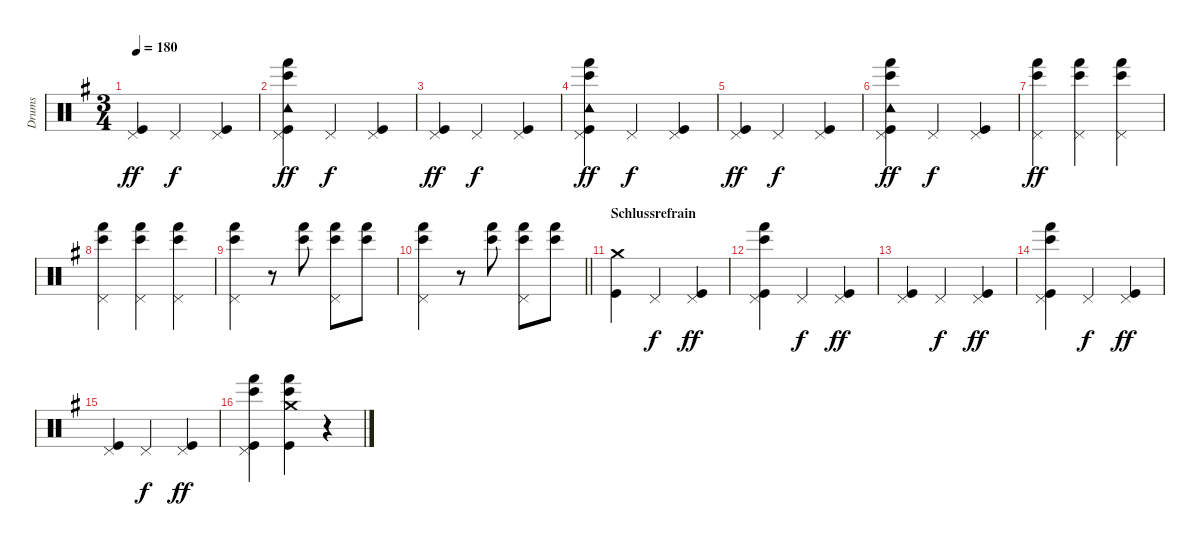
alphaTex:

\track ("Drums" "Drums") {instrument percussion bank 24}
\staff {score}
\articulation defaults
\ts (3 4)
\tempo 180
\clef neutral
\ks eminor
("Pedal Hi-Hat (hit)" "Kick (hit)").4{dy ff} "Pedal Hi-Hat (hit)".4{dy f} ("Pedal Hi-Hat (hit)" "Kick (hit)").4 |
("Pedal Hi-Hat (hit)" "Tambourine (hit)" "Bongo High (hit)" "Hand (hit)" "Kick (hit)").4{dy ff} "Pedal Hi-Hat (hit)".4{dy f} ("Pedal Hi-Hat (hit)" "Kick (hit)").4 |
("Pedal Hi-Hat (hit)" "Kick (hit)").4{dy ff} "Pedal Hi-Hat (hit)".4{dy f} ("Pedal Hi-Hat (hit)" "Kick (hit)").4 |
("Pedal Hi-Hat (hit)" "Tambourine (hit)" "Bongo High (hit)" "Hand (hit)" "Kick (hit)").4{dy ff} "Pedal Hi-Hat (hit)".4{dy f} ("Pedal Hi-Hat (hit)" "Kick (hit)").4 |
("Pedal Hi-Hat (hit)" "Kick (hit)").4{dy ff} "Pedal Hi-Hat (hit)".4{dy f} ("Pedal Hi-Hat (hit)" "Kick (hit)").4 |
("Pedal Hi-Hat (hit)" "Tambourine (hit)" "Bongo High (hit)" "Hand (hit)" "Kick (hit)").4{dy ff} "Pedal Hi-Hat (hit)".4{dy f} ("Pedal Hi-Hat (hit)" "Kick (hit)").4 |
("Pedal Hi-Hat (hit)" "Bongo High (hit)" "Hand (hit)").4{dy ff} ("Pedal Hi-Hat (hit)" "Bongo High (hit)" "Hand (hit)").4 ("Pedal Hi-Hat (hit)" "Bongo High (hit)" "Hand (hit)").4 |
("Pedal Hi-Hat (hit)" "Bongo High (hit)" "Hand (hit)").4 ("Pedal Hi-Hat (hit)" "Bongo High (hit)" "Hand (hit)").4 ("Pedal Hi-Hat (hit)" "Bongo High (hit)" "Hand (hit)").4 |
("Pedal Hi-Hat (hit)" "Bongo High (hit)" "Hand (hit)").4 r.8 ("Bongo High (hit)" "Hand (hit)").8 ("Pedal Hi-Hat (hit)" "Bongo High (hit)" "Hand (hit)").8 ("Bongo High (hit)" "Hand (hit)").8 |
\barLineRight lightlight
("Pedal Hi-Hat (hit)" "Bongo High (hit)" "Hand (hit)").4 r.8 ("Bongo High (hit)" "Hand (hit)").8 ("Pedal Hi-Hat (hit)" "Bongo High (hit)" "Hand (hit)").8 ("Bongo High (hit)" "Hand (hit)").8 |
\section ("" "Schlussrefrain")
("Crash medium (hit)" "Kick (hit)").4 "Pedal Hi-Hat (hit)".4{dy f} ("Pedal Hi-Hat (hit)" "Kick (hit)").4{dy ff} |
("Pedal Hi-Hat (hit)" "Bongo High (hit)" "Hand (hit)" "Kick (hit)").4 "Pedal Hi-Hat (hit)".4{dy f} ("Pedal Hi-Hat (hit)" "Kick (hit)").4{dy ff} |
("Pedal Hi-Hat (hit)" "Kick (hit)").4 "Pedal Hi-Hat (hit)".4{dy f} ("Pedal Hi-Hat (hit)" "Kick (hit)").4{dy ff} |
("Pedal Hi-Hat (hit)" "Bongo High (hit)" "Hand (hit)" "Kick (hit)").4 "Pedal Hi-Hat (hit)".4{dy f} ("Pedal Hi-Hat (hit)" "Kick (hit)").4{dy ff} |
("Pedal Hi-Hat (hit)" "Kick (hit)").4 "Pedal Hi-Hat (hit)".4{dy f} ("Pedal Hi-Hat (hit)" "Kick (hit)").4{dy ff} |
("Pedal Hi-Hat (hit)" "Bongo High (hit)" "Hand (hit)" "Kick (hit)").4 ("Crash medium (hit)" "Bongo High (hit)" "Hand (hit)" "Kick (hit)").4 r.4
